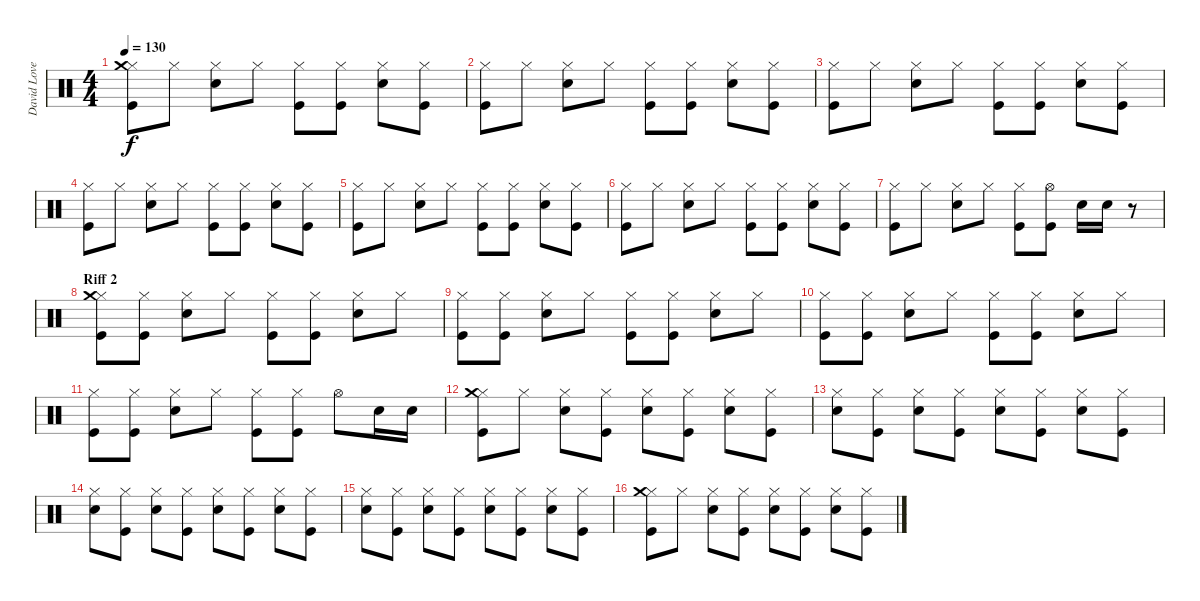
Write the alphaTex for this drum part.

\track ("David Lovering" "David Love") {instrument percussion}
\staff {score}
\articulation defaults
\ts (4 4)
\tempo 130
\clef neutral
\ks c
("Hi-Hat (closed)" "Crash medium (hit)" "Kick (hit)").8{dy f} "Hi-Hat (closed)".8 ("Hi-Hat (closed)" "Snare (hit) 2").8 "Hi-Hat (closed)".8 ("Hi-Hat (closed)" "Kick (hit)").8 ("Hi-Hat (closed)" "Kick (hit)").8 ("Hi-Hat (closed)" "Snare (hit) 2").8 ("Hi-Hat (closed)" "Kick (hit)").8 |
("Hi-Hat (closed)" "Kick (hit)").8 "Hi-Hat (closed)".8 ("Hi-Hat (closed)" "Snare (hit) 2").8 "Hi-Hat (closed)".8 ("Hi-Hat (closed)" "Kick (hit)").8 ("Hi-Hat (closed)" "Kick (hit)").8 ("Hi-Hat (closed)" "Snare (hit) 2").8 ("Hi-Hat (closed)" "Kick (hit)").8 |
("Hi-Hat (closed)" "Kick (hit)").8 "Hi-Hat (closed)".8 ("Hi-Hat (closed)" "Snare (hit) 2").8 "Hi-Hat (closed)".8 ("Hi-Hat (closed)" "Kick (hit)").8 ("Hi-Hat (closed)" "Kick (hit)").8 ("Hi-Hat (closed)" "Snare (hit) 2").8 ("Hi-Hat (closed)" "Kick (hit)").8 |
("Hi-Hat (closed)" "Kick (hit)").8 "Hi-Hat (closed)".8 ("Hi-Hat (closed)" "Snare (hit) 2").8 "Hi-Hat (closed)".8 ("Hi-Hat (closed)" "Kick (hit)").8 ("Hi-Hat (closed)" "Kick (hit)").8 ("Hi-Hat (closed)" "Snare (hit) 2").8 ("Hi-Hat (closed)" "Kick (hit)").8 |
("Hi-Hat (closed)" "Kick (hit)").8 "Hi-Hat (closed)".8 ("Hi-Hat (closed)" "Snare (hit) 2").8 "Hi-Hat (closed)".8 ("Hi-Hat (closed)" "Kick (hit)").8 ("Hi-Hat (closed)" "Kick (hit)").8 ("Hi-Hat (closed)" "Snare (hit) 2").8 ("Hi-Hat (closed)" "Kick (hit)").8 |
("Hi-Hat (closed)" "Kick (hit)").8 "Hi-Hat (closed)".8 ("Hi-Hat (closed)" "Snare (hit) 2").8 "Hi-Hat (closed)".8 ("Hi-Hat (closed)" "Kick (hit)").8 ("Hi-Hat (closed)" "Kick (hit)").8 ("Hi-Hat (closed)" "Snare (hit) 2").8 ("Hi-Hat (closed)" "Kick (hit)").8 |
("Hi-Hat (closed)" "Kick (hit)").8 "Hi-Hat (closed)".8 ("Hi-Hat (closed)" "Snare (hit) 2").8 "Hi-Hat (closed)".8 ("Hi-Hat (closed)" "Kick (hit)").8 ("Hi-Hat (open)" "Kick (hit)").8 "Snare (hit) 2".16 "Snare (hit) 2".16 r.8 |
\section ("" "Riff 2")
("Hi-Hat (closed)" "Crash medium (hit)" "Kick (hit)").8 ("Hi-Hat (closed)" "Kick (hit)").8 ("Hi-Hat (closed)" "Snare (hit) 2").8 "Hi-Hat (closed)".8 ("Hi-Hat (closed)" "Kick (hit)").8 ("Hi-Hat (closed)" "Kick (hit)").8 ("Hi-Hat (closed)" "Snare (hit) 2").8 "Hi-Hat (closed)".8 |
("Hi-Hat (closed)" "Kick (hit)").8 ("Hi-Hat (closed)" "Kick (hit)").8 ("Hi-Hat (closed)" "Snare (hit) 2").8 "Hi-Hat (closed)".8 ("Hi-Hat (closed)" "Kick (hit)").8 ("Hi-Hat (closed)" "Kick (hit)").8 ("Hi-Hat (closed)" "Snare (hit) 2").8 "Hi-Hat (closed)".8 |
("Hi-Hat (closed)" "Kick (hit)").8 ("Hi-Hat (closed)" "Kick (hit)").8 ("Hi-Hat (closed)" "Snare (hit) 2").8 "Hi-Hat (closed)".8 ("Hi-Hat (closed)" "Kick (hit)").8 ("Hi-Hat (closed)" "Kick (hit)").8 ("Hi-Hat (closed)" "Snare (hit) 2").8 "Hi-Hat (closed)".8 |
("Hi-Hat (closed)" "Kick (hit)").8 ("Hi-Hat (closed)" "Kick (hit)").8 ("Hi-Hat (closed)" "Snare (hit) 2").8 "Hi-Hat (closed)".8 ("Hi-Hat (closed)" "Kick (hit)").8 ("Hi-Hat (closed)" "Kick (hit)").8 "Hi-Hat (open)".8 "Snare (hit) 2".16 "Snare (hit) 2".16 |
("Hi-Hat (closed)" "Crash medium (hit)" "Kick (hit)").8 "Hi-Hat (closed)".8 ("Hi-Hat (closed)" "Snare (hit) 2").8 ("Hi-Hat (closed)" "Kick (hit)").8 ("Hi-Hat (closed)" "Snare (hit) 2").8 ("Hi-Hat (closed)" "Kick (hit)").8 ("Hi-Hat (closed)" "Snare (hit) 2").8 ("Hi-Hat (closed)" "Kick (hit)").8 |
("Hi-Hat (closed)" "Snare (hit) 2").8 ("Hi-Hat (closed)" "Kick (hit)").8 ("Hi-Hat (closed)" "Snare (hit) 2").8 ("Hi-Hat (closed)" "Kick (hit)").8 ("Hi-Hat (closed)" "Snare (hit) 2").8 ("Hi-Hat (closed)" "Kick (hit)").8 ("Hi-Hat (closed)" "Snare (hit) 2").8 ("Hi-Hat (closed)" "Kick (hit)").8 |
("Hi-Hat (closed)" "Snare (hit) 2").8 ("Hi-Hat (closed)" "Kick (hit)").8 ("Hi-Hat (closed)" "Snare (hit) 2").8 ("Hi-Hat (closed)" "Kick (hit)").8 ("Hi-Hat (closed)" "Snare (hit) 2").8 ("Hi-Hat (closed)" "Kick (hit)").8 ("Hi-Hat (closed)" "Snare (hit) 2").8 ("Hi-Hat (closed)" "Kick (hit)").8 |
("Hi-Hat (closed)" "Snare (hit) 2").8 ("Hi-Hat (closed)" "Kick (hit)").8 ("Hi-Hat (closed)" "Snare (hit) 2").8 ("Hi-Hat (closed)" "Kick (hit)").8 ("Hi-Hat (closed)" "Snare (hit) 2").8 ("Hi-Hat (closed)" "Kick (hit)").8 ("Hi-Hat (closed)" "Snare (hit) 2").8 ("Hi-Hat (closed)" "Kick (hit)").8 |
\section ("" "")
("Hi-Hat (closed)" "Crash medium (hit)" "Kick (hit)").8 "Hi-Hat (closed)".8 ("Hi-Hat (closed)" "Snare (hit) 2").8 ("Hi-Hat (closed)" "Kick (hit)").8 ("Hi-Hat (closed)" "Snare (hit) 2").8 ("Hi-Hat (closed)" "Kick (hit)").8 ("Hi-Hat (closed)" "Snare (hit) 2").8 ("Hi-Hat (closed)" "Kick (hit)").8
